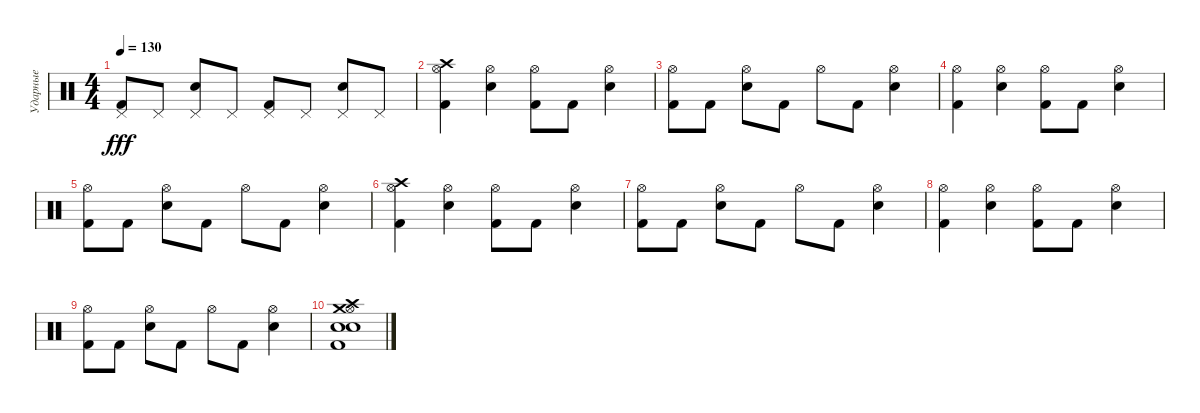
\track ("Ударные" "Ударные") {instrument percussion}
\staff {score}
\articulation defaults
\ts (4 4)
\tempo 130
\clef neutral
\ks c
("Pedal Hi-Hat (hit)" "Kick (hit) 2").8{dy fff} "Pedal Hi-Hat (hit)".8 ("Pedal Hi-Hat (hit)" "Snare (hit) 2").8 "Pedal Hi-Hat (hit)".8 ("Pedal Hi-Hat (hit)" "Kick (hit) 2").8 "Pedal Hi-Hat (hit)".8 ("Pedal Hi-Hat (hit)" "Snare (hit) 2").8 "Pedal Hi-Hat (hit)".8 |
("Hi-Hat (open)" "Crash high (hit)" "Kick (hit) 2").4 ("Hi-Hat (open)" "Snare (hit) 2").4 ("Hi-Hat (open)" "Kick (hit) 2").8 "Kick (hit) 2".8 ("Hi-Hat (open)" "Snare (hit) 2").4 |
("Hi-Hat (open)" "Kick (hit) 2").8 "Kick (hit) 2".8 ("Hi-Hat (open)" "Snare (hit) 2").8 "Kick (hit) 2".8 "Hi-Hat (open)".8 "Kick (hit) 2".8 ("Hi-Hat (open)" "Snare (hit) 2").4 |
("Hi-Hat (open)" "Kick (hit) 2").4 ("Hi-Hat (open)" "Snare (hit) 2").4 ("Hi-Hat (open)" "Kick (hit) 2").8 "Kick (hit) 2".8 ("Hi-Hat (open)" "Snare (hit) 2").4 |
("Hi-Hat (open)" "Kick (hit) 2").8 "Kick (hit) 2".8 ("Hi-Hat (open)" "Snare (hit) 2").8 "Kick (hit) 2".8 "Hi-Hat (open)".8 "Kick (hit) 2".8 ("Hi-Hat (open)" "Snare (hit) 2").4 |
("Hi-Hat (open)" "Crash high (hit)" "Kick (hit) 2").4 ("Hi-Hat (open)" "Snare (hit) 2").4 ("Hi-Hat (open)" "Kick (hit) 2").8 "Kick (hit) 2".8 ("Hi-Hat (open)" "Snare (hit) 2").4 |
("Hi-Hat (open)" "Kick (hit) 2").8 "Kick (hit) 2".8 ("Hi-Hat (open)" "Snare (hit) 2").8 "Kick (hit) 2".8 "Hi-Hat (open)".8 "Kick (hit) 2".8 ("Hi-Hat (open)" "Snare (hit) 2").4 |
("Hi-Hat (open)" "Kick (hit) 2").4 ("Hi-Hat (open)" "Snare (hit) 2").4 ("Hi-Hat (open)" "Kick (hit) 2").8 "Kick (hit) 2".8 ("Hi-Hat (open)" "Snare (hit) 2").4 |
("Hi-Hat (open)" "Kick (hit) 2").8 "Kick (hit) 2".8 ("Hi-Hat (open)" "Snare (hit) 2").8 "Kick (hit) 2".8 "Hi-Hat (open)".8 "Kick (hit) 2".8 ("Hi-Hat (open)" "Snare (hit) 2").4 |
("Crash high (hit)" "Crash medium (hit)" "Hi-Hat (open)" "Snare (hit) 2" "Kick (hit) 2" "Electric Snare (hit)").1
